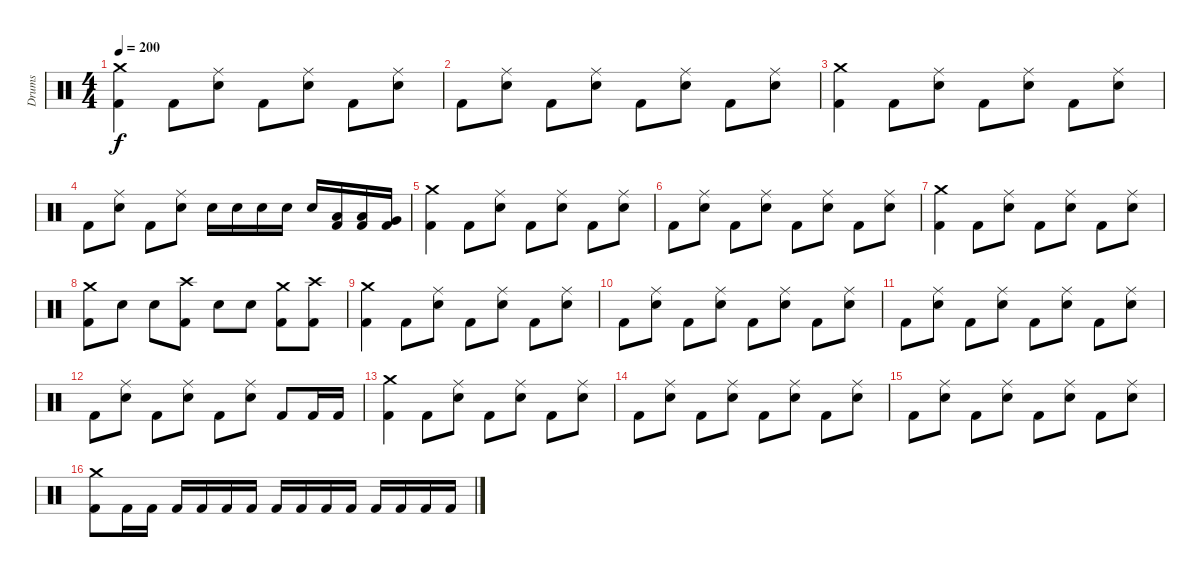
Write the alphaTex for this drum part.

\track ("Drums" "Drums") {instrument percussion}
\staff {score}
\articulation defaults
\ts (4 4)
\section ("" "")
\tempo 200
\clef neutral
\ks c
("Crash medium (hit)" "Kick (hit) 2").4{dy f} "Kick (hit) 2".8 ("Ride (middle)" "Electric Snare (hit)").8 "Kick (hit) 2".8 ("Ride (middle)" "Electric Snare (hit)").8 "Kick (hit) 2".8 ("Ride (middle)" "Electric Snare (hit)").8 |
"Kick (hit) 2".8 ("Ride (middle)" "Electric Snare (hit)").8 "Kick (hit) 2".8 ("Ride (middle)" "Electric Snare (hit)").8 "Kick (hit) 2".8 ("Ride (middle)" "Electric Snare (hit)").8 "Kick (hit) 2".8 ("Ride (middle)" "Electric Snare (hit)").8 |
("Crash medium (hit)" "Kick (hit) 2").4 "Kick (hit) 2".8 ("Ride (middle)" "Electric Snare (hit)").8 "Kick (hit) 2".8 ("Ride (middle)" "Electric Snare (hit)").8 "Kick (hit) 2".8 ("Ride (middle)" "Electric Snare (hit)").8 |
"Kick (hit) 2".8 ("Ride (middle)" "Electric Snare (hit)").8 "Kick (hit) 2".8 ("Ride (middle)" "Electric Snare (hit)").8 "Electric Snare (hit)".16 "Electric Snare (hit)".16 "Electric Snare (hit)".16 "Electric Snare (hit)".16 "Electric Snare (hit)".16 ("Low Tom (hit)" "Kick (hit) 2").16 ("Low Tom (hit)" "Kick (hit) 2").16 ("Very Low Tom (hit)" "Kick (hit) 2").16 |
\section ("" "")
("Crash medium (hit)" "Kick (hit) 2").4 "Kick (hit) 2".8 ("Ride (middle)" "Electric Snare (hit)").8 "Kick (hit) 2".8 ("Ride (middle)" "Electric Snare (hit)").8 "Kick (hit) 2".8 ("Ride (middle)" "Electric Snare (hit)").8 |
"Kick (hit) 2".8 ("Ride (middle)" "Electric Snare (hit)").8 "Kick (hit) 2".8 ("Ride (middle)" "Electric Snare (hit)").8 "Kick (hit) 2".8 ("Ride (middle)" "Electric Snare (hit)").8 "Kick (hit) 2".8 ("Ride (middle)" "Electric Snare (hit)").8 |
("Crash medium (hit)" "Kick (hit) 2").4 "Kick (hit) 2".8 ("Ride (middle)" "Electric Snare (hit)").8 "Kick (hit) 2".8 ("Ride (middle)" "Electric Snare (hit)").8 "Kick (hit) 2".8 ("Ride (middle)" "Electric Snare (hit)").8 |
("Crash medium (hit)" "Kick (hit) 2").8 "Electric Snare (hit)".8 "Electric Snare (hit)".8 ("Crash high (hit)" "Kick (hit) 2").8 "Electric Snare (hit)".8 "Electric Snare (hit)".8 ("Crash medium (hit)" "Kick (hit) 2").8 ("Crash high (hit)" "Kick (hit) 2").8 |
\section ("" "")
("Crash medium (hit)" "Kick (hit) 2").4 "Kick (hit) 2".8 ("Ride (middle)" "Electric Snare (hit)").8 "Kick (hit) 2".8 ("Ride (middle)" "Electric Snare (hit)").8 "Kick (hit) 2".8 ("Ride (middle)" "Electric Snare (hit)").8 |
"Kick (hit) 2".8 ("Ride (middle)" "Electric Snare (hit)").8 "Kick (hit) 2".8 ("Ride (middle)" "Electric Snare (hit)").8 "Kick (hit) 2".8 ("Ride (middle)" "Electric Snare (hit)").8 "Kick (hit) 2".8 ("Ride (middle)" "Electric Snare (hit)").8 |
"Kick (hit) 2".8 ("Ride (middle)" "Electric Snare (hit)").8 "Kick (hit) 2".8 ("Ride (middle)" "Electric Snare (hit)").8 "Kick (hit) 2".8 ("Ride (middle)" "Electric Snare (hit)").8 "Kick (hit) 2".8 ("Ride (middle)" "Electric Snare (hit)").8 |
"Kick (hit) 2".8 ("Ride (middle)" "Electric Snare (hit)").8 "Kick (hit) 2".8 ("Ride (middle)" "Electric Snare (hit)").8 "Kick (hit) 2".8 ("Ride (middle)" "Electric Snare (hit)").8 "Kick (hit) 2".8 "Kick (hit) 2".16 "Kick (hit) 2".16 |
("Crash medium (hit)" "Kick (hit) 2").4 "Kick (hit) 2".8 ("Ride (middle)" "Electric Snare (hit)").8 "Kick (hit) 2".8 ("Ride (middle)" "Electric Snare (hit)").8 "Kick (hit) 2".8 ("Ride (middle)" "Electric Snare (hit)").8 |
"Kick (hit) 2".8 ("Ride (middle)" "Electric Snare (hit)").8 "Kick (hit) 2".8 ("Ride (middle)" "Electric Snare (hit)").8 "Kick (hit) 2".8 ("Ride (middle)" "Electric Snare (hit)").8 "Kick (hit) 2".8 ("Ride (middle)" "Electric Snare (hit)").8 |
"Kick (hit) 2".8 ("Ride (middle)" "Electric Snare (hit)").8 "Kick (hit) 2".8 ("Ride (middle)" "Electric Snare (hit)").8 "Kick (hit) 2".8 ("Ride (middle)" "Electric Snare (hit)").8 "Kick (hit) 2".8 ("Ride (middle)" "Electric Snare (hit)").8 |
("Crash medium (hit)" "Kick (hit) 2").8 "Kick (hit) 2".16 "Kick (hit) 2".16 "Kick (hit) 2".16 "Kick (hit) 2".16 "Kick (hit) 2".16 "Kick (hit) 2".16 "Kick (hit) 2".16 "Kick (hit) 2".16 "Kick (hit) 2".16 "Kick (hit) 2".16 "Kick (hit) 2".16 "Kick (hit) 2".16 "Kick (hit) 2".16 "Kick (hit) 2".16
